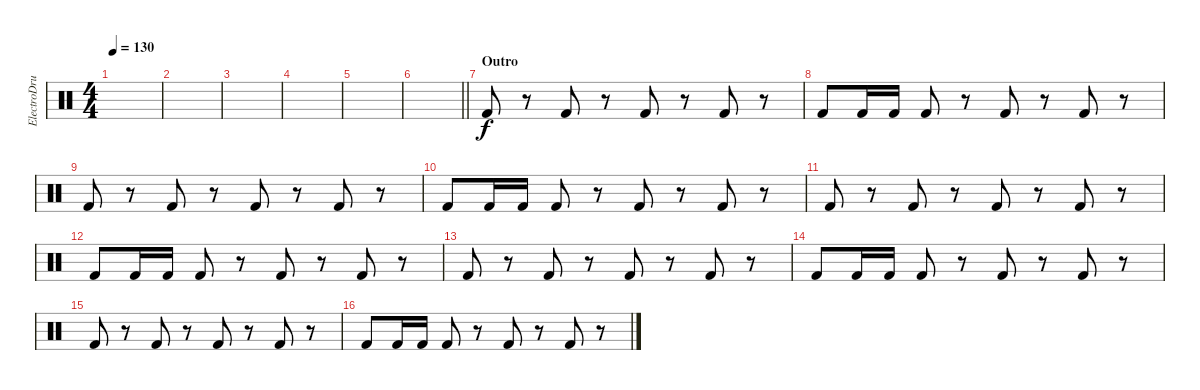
\track ("ElectroDrums" "ElectroDru") {instrument percussion}
\staff {score}
\articulation defaults
\ts (4 4)
\tempo 130
\clef neutral
\ks c
|
|
|
|
|
\barLineRight lightlight
|
\section ("" "Outro")
"Kick (hit) 2".8 r.8 "Kick (hit) 2".8 r.8 "Kick (hit) 2".8 r.8 "Kick (hit) 2".8 r.8 |
"Kick (hit) 2".8 "Kick (hit) 2".16 "Kick (hit) 2".16 "Kick (hit) 2".8 r.8 "Kick (hit) 2".8 r.8 "Kick (hit) 2".8 r.8 |
"Kick (hit) 2".8 r.8 "Kick (hit) 2".8 r.8 "Kick (hit) 2".8 r.8 "Kick (hit) 2".8 r.8 |
"Kick (hit) 2".8 "Kick (hit) 2".16 "Kick (hit) 2".16 "Kick (hit) 2".8 r.8 "Kick (hit) 2".8 r.8 "Kick (hit) 2".8 r.8 |
"Kick (hit) 2".8 r.8 "Kick (hit) 2".8 r.8 "Kick (hit) 2".8 r.8 "Kick (hit) 2".8 r.8 |
"Kick (hit) 2".8 "Kick (hit) 2".16 "Kick (hit) 2".16 "Kick (hit) 2".8 r.8 "Kick (hit) 2".8 r.8 "Kick (hit) 2".8 r.8 |
"Kick (hit) 2".8 r.8 "Kick (hit) 2".8 r.8 "Kick (hit) 2".8 r.8 "Kick (hit) 2".8 r.8 |
"Kick (hit) 2".8 "Kick (hit) 2".16 "Kick (hit) 2".16 "Kick (hit) 2".8 r.8 "Kick (hit) 2".8 r.8 "Kick (hit) 2".8 r.8 |
"Kick (hit) 2".8 r.8 "Kick (hit) 2".8 r.8 "Kick (hit) 2".8 r.8 "Kick (hit) 2".8 r.8 |
"Kick (hit) 2".8 "Kick (hit) 2".16 "Kick (hit) 2".16 "Kick (hit) 2".8 r.8 "Kick (hit) 2".8 r.8 "Kick (hit) 2".8 r.8
